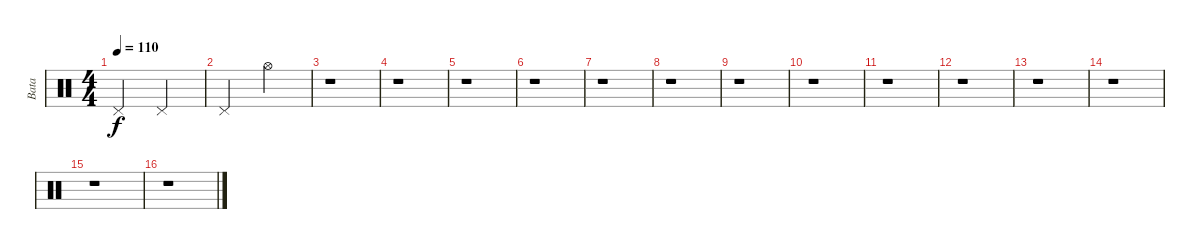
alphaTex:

\track ("Bata" "Bata") {instrument percussion}
\staff {score}
\articulation defaults
\ts (4 4)
\tempo 110
\clef neutral
\ks c "Pedal Hi-Hat (hit)".2{dy f} "Pedal Hi-Hat (hit)".2
|
"Pedal Hi-Hat (hit)".2 "Hi-Hat (open)".2 |
r.1 |
r.1 |
r.1 |
r.1 |
r.1 |
r.1 |
r.1 |
r.1 |
r.1 |
r.1 |
r.1 |
r.1 |
r.1 |
r.1
